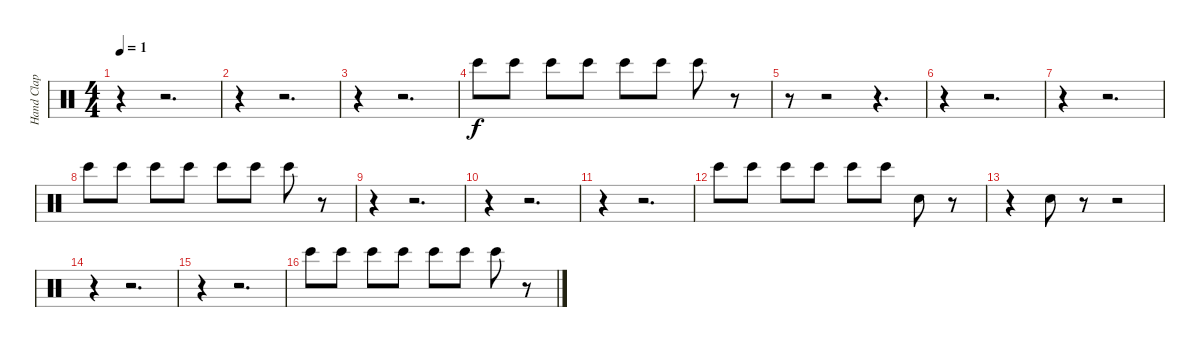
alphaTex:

\track ("Hand Clap" "Hand Clap") {instrument percussion}
\staff {score}
\articulation defaults
\ts (4 4)
\tempo 1
\clef neutral
\ks c
r.4{dy f} r.2{d} |
r.4 r.2{d} |
r.4 r.2{d} |
"Bongo High (hit)".8 "Bongo High (hit)".8 "Bongo High (hit)".8 "Bongo High (hit)".8 "Bongo High (hit)".8 "Bongo High (hit)".8 "Bongo High (hit)".8 r.8 |
r.8 r.2 r.4{d} |
r.4 r.2{d} |
r.4 r.2{d} |
"Bongo High (hit)".8 "Bongo High (hit)".8 "Bongo High (hit)".8 "Bongo High (hit)".8 "Bongo High (hit)".8 "Bongo High (hit)".8 "Bongo High (hit)".8 r.8 |
r.4 r.2{d} |
r.4 r.2{d} |
r.4 r.2{d} |
"Bongo High (hit)".8 "Bongo High (hit)".8 "Bongo High (hit)".8 "Bongo High (hit)".8 "Bongo High (hit)".8 "Bongo High (hit)".8 "Hand Clap (hit)".8 r.8 |
r.4 "Hand Clap (hit)".8 r.8 r.2 |
r.4 r.2{d} |
r.4 r.2{d} |
"Bongo High (hit)".8 "Bongo High (hit)".8 "Bongo High (hit)".8 "Bongo High (hit)".8 "Bongo High (hit)".8 "Bongo High (hit)".8 "Bongo High (hit)".8 r.8
